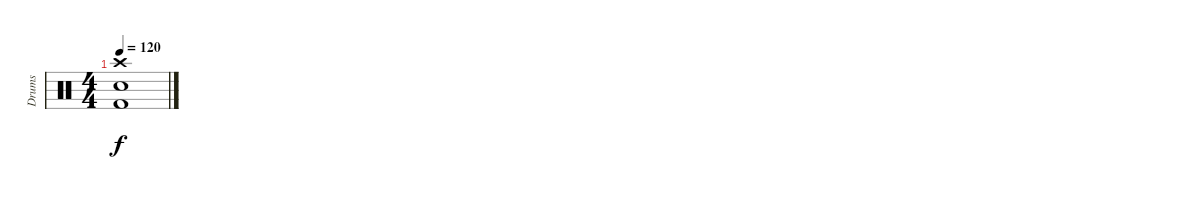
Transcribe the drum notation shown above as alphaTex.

\track ("Drums" "Drums") {instrument percussion}
\staff {score}
\articulation defaults
\ts (4 4)
\tempo 120
\clef neutral
\ks c
("Crash high (hit)" "Kick (hit) 2" "Electric Snare (hit)").1{dy f}
